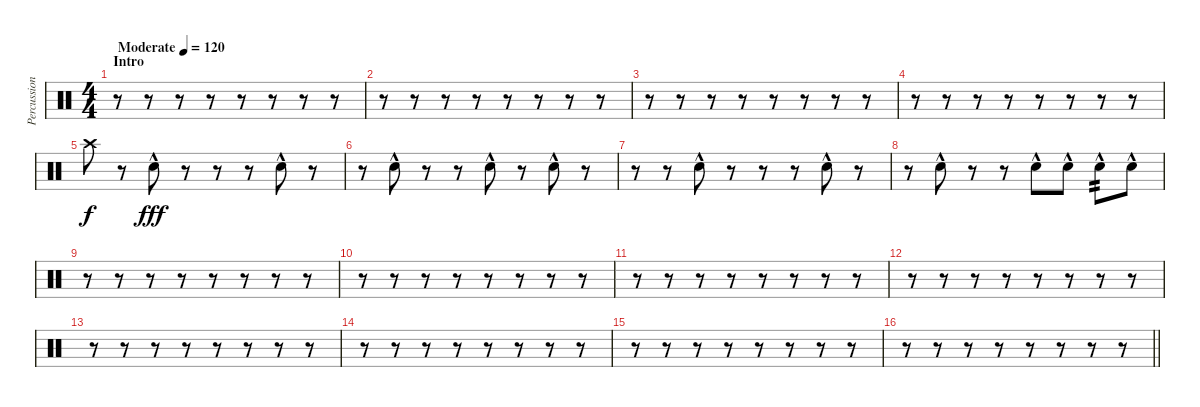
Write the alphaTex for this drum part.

\track ("Percussion" "Percussion") {mute instrument percussion}
\staff {score}
\articulation defaults
\ts (4 4)
\section ("" "Intro")
\tempo (120 "Moderate")
\tempo 195
\tempo (120 "Moderate")
\clef neutral
\ks c
r.8{dy f} r.8 r.8 r.8 r.8 r.8 r.8 r.8 |
r.8 r.8 r.8 r.8 r.8 r.8 r.8 r.8 |
r.8 r.8 r.8 r.8 r.8 r.8 r.8 r.8 |
r.8 r.8 r.8 r.8 r.8 r.8 r.8 r.8 |
"Crash high (hit)".8 r.8 "Snare (hit) 2"{hac}.8{dy fff} r.8 r.8 r.8 "Snare (hit) 2"{hac}.8 r.8 |
r.8 "Snare (hit) 2"{hac}.8 r.8 r.8 "Snare (hit) 2"{hac}.8 r.8 "Snare (hit) 2"{hac}.8 r.8 |
r.8 r.8 "Snare (hit) 2"{hac}.8 r.8 r.8 r.8 "Snare (hit) 2"{hac}.8 r.8 |
r.8 "Snare (hit) 2"{hac}.8 r.8 r.8 "Snare (hit) 2"{hac}.8 "Snare (hit) 2"{hac}.8 "Snare (hit) 2"{hac}.8{tp 2} "Snare (hit) 2"{hac}.8 |
r.8 r.8 r.8 r.8 r.8 r.8 r.8 r.8 |
r.8 r.8 r.8 r.8 r.8 r.8 r.8 r.8 |
r.8 r.8 r.8 r.8 r.8 r.8 r.8 r.8 |
r.8 r.8 r.8 r.8 r.8 r.8 r.8 r.8 |
r.8 r.8 r.8 r.8 r.8 r.8 r.8 r.8 |
r.8 r.8 r.8 r.8 r.8 r.8 r.8 r.8 |
r.8 r.8 r.8 r.8 r.8 r.8 r.8 r.8 |
\barLineRight lightlight
r.8 r.8 r.8 r.8 r.8 r.8 r.8 r.8
